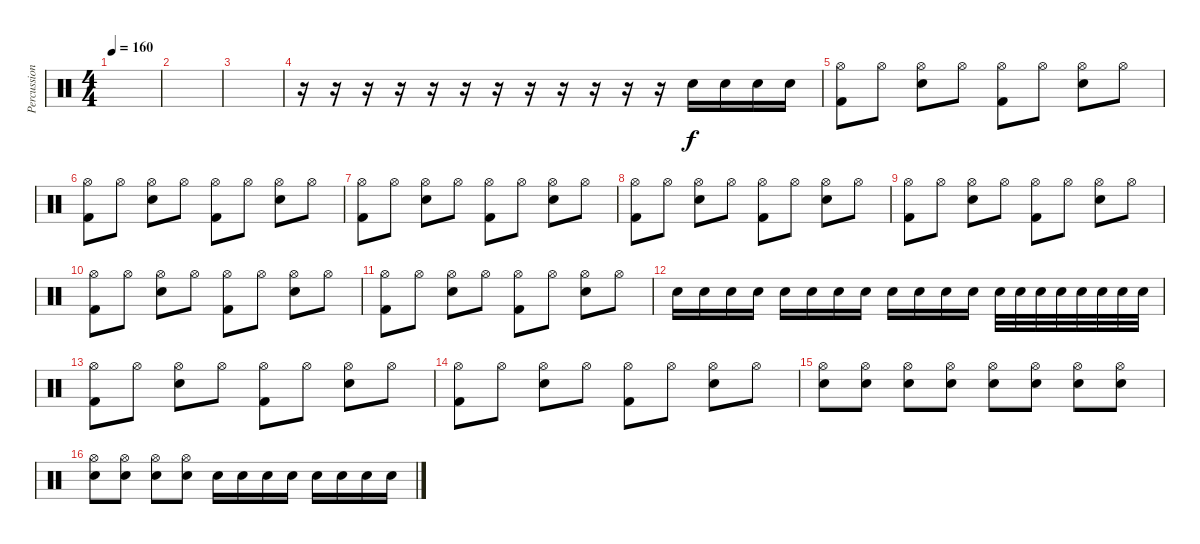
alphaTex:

\track ("Percussion" "Percussion") {instrument percussion}
\staff {score}
\articulation defaults
\ts (4 4)
\tempo 160
\clef neutral
\ks c
|
|
|
r.16 r.16 r.16 r.16 r.16 r.16 r.16 r.16 r.16 r.16 r.16 r.16 "Electric Snare (hit)".16 "Electric Snare (hit)".16 "Electric Snare (hit)".16 "Electric Snare (hit)".16 |
("Hi-Hat (open)" "Kick (hit) 2").8 "Hi-Hat (open)".8 ("Hi-Hat (open)" "Electric Snare (hit)").8 "Hi-Hat (open)".8 ("Hi-Hat (open)" "Kick (hit) 2").8 "Hi-Hat (open)".8 ("Hi-Hat (open)" "Electric Snare (hit)").8 "Hi-Hat (open)".8 |
("Hi-Hat (open)" "Kick (hit) 2").8 "Hi-Hat (open)".8 ("Hi-Hat (open)" "Electric Snare (hit)").8 "Hi-Hat (open)".8 ("Hi-Hat (open)" "Kick (hit) 2").8 "Hi-Hat (open)".8 ("Hi-Hat (open)" "Electric Snare (hit)").8 "Hi-Hat (open)".8 |
("Hi-Hat (open)" "Kick (hit) 2").8 "Hi-Hat (open)".8 ("Hi-Hat (open)" "Electric Snare (hit)").8 "Hi-Hat (open)".8 ("Hi-Hat (open)" "Kick (hit) 2").8 "Hi-Hat (open)".8 ("Hi-Hat (open)" "Electric Snare (hit)").8 "Hi-Hat (open)".8 |
("Hi-Hat (open)" "Kick (hit) 2").8 "Hi-Hat (open)".8 ("Hi-Hat (open)" "Electric Snare (hit)").8 "Hi-Hat (open)".8 ("Hi-Hat (open)" "Kick (hit) 2").8 "Hi-Hat (open)".8 ("Hi-Hat (open)" "Electric Snare (hit)").8 "Hi-Hat (open)".8 |
("Hi-Hat (open)" "Kick (hit) 2").8 "Hi-Hat (open)".8 ("Hi-Hat (open)" "Electric Snare (hit)").8 "Hi-Hat (open)".8 ("Hi-Hat (open)" "Kick (hit) 2").8 "Hi-Hat (open)".8 ("Hi-Hat (open)" "Electric Snare (hit)").8 "Hi-Hat (open)".8 |
("Hi-Hat (open)" "Kick (hit) 2").8 "Hi-Hat (open)".8 ("Hi-Hat (open)" "Electric Snare (hit)").8 "Hi-Hat (open)".8 ("Hi-Hat (open)" "Kick (hit) 2").8 "Hi-Hat (open)".8 ("Hi-Hat (open)" "Electric Snare (hit)").8 "Hi-Hat (open)".8 |
("Hi-Hat (open)" "Kick (hit) 2").8 "Hi-Hat (open)".8 ("Hi-Hat (open)" "Electric Snare (hit)").8 "Hi-Hat (open)".8 ("Hi-Hat (open)" "Kick (hit) 2").8 "Hi-Hat (open)".8 ("Hi-Hat (open)" "Electric Snare (hit)").8 "Hi-Hat (open)".8 |
"Electric Snare (hit)".16 "Electric Snare (hit)".16 "Electric Snare (hit)".16 "Electric Snare (hit)".16 "Electric Snare (hit)".16 "Electric Snare (hit)".16 "Electric Snare (hit)".16 "Electric Snare (hit)".16 "Electric Snare (hit)".16 "Electric Snare (hit)".16 "Electric Snare (hit)".16 "Electric Snare (hit)".16 "Electric Snare (hit)".32 "Electric Snare (hit)".32 "Electric Snare (hit)".32 "Electric Snare (hit)".32 "Electric Snare (hit)".32 "Electric Snare (hit)".32 "Electric Snare (hit)".32 "Electric Snare (hit)".32 |
("Hi-Hat (open)" "Kick (hit) 2").8 "Hi-Hat (open)".8 ("Hi-Hat (open)" "Electric Snare (hit)").8 "Hi-Hat (open)".8 ("Hi-Hat (open)" "Kick (hit) 2").8 "Hi-Hat (open)".8 ("Hi-Hat (open)" "Electric Snare (hit)").8 "Hi-Hat (open)".8 |
("Hi-Hat (open)" "Kick (hit) 2").8 "Hi-Hat (open)".8 ("Hi-Hat (open)" "Electric Snare (hit)").8 "Hi-Hat (open)".8 ("Hi-Hat (open)" "Kick (hit) 2").8 "Hi-Hat (open)".8 ("Hi-Hat (open)" "Electric Snare (hit)").8 "Hi-Hat (open)".8 |
("Hi-Hat (open)" "Electric Snare (hit)").8 ("Hi-Hat (open)" "Electric Snare (hit)").8 ("Hi-Hat (open)" "Electric Snare (hit)").8 ("Hi-Hat (open)" "Electric Snare (hit)").8 ("Hi-Hat (open)" "Electric Snare (hit)").8 ("Hi-Hat (open)" "Electric Snare (hit)").8 ("Hi-Hat (open)" "Electric Snare (hit)").8 ("Hi-Hat (open)" "Electric Snare (hit)").8 |
("Hi-Hat (open)" "Electric Snare (hit)").8 ("Hi-Hat (open)" "Electric Snare (hit)").8 ("Hi-Hat (open)" "Electric Snare (hit)").8 ("Hi-Hat (open)" "Electric Snare (hit)").8 "Electric Snare (hit)".16 "Electric Snare (hit)".16 "Electric Snare (hit)".16 "Electric Snare (hit)".16 "Electric Snare (hit)".16 "Electric Snare (hit)".16 "Electric Snare (hit)".16 "Electric Snare (hit)".16
